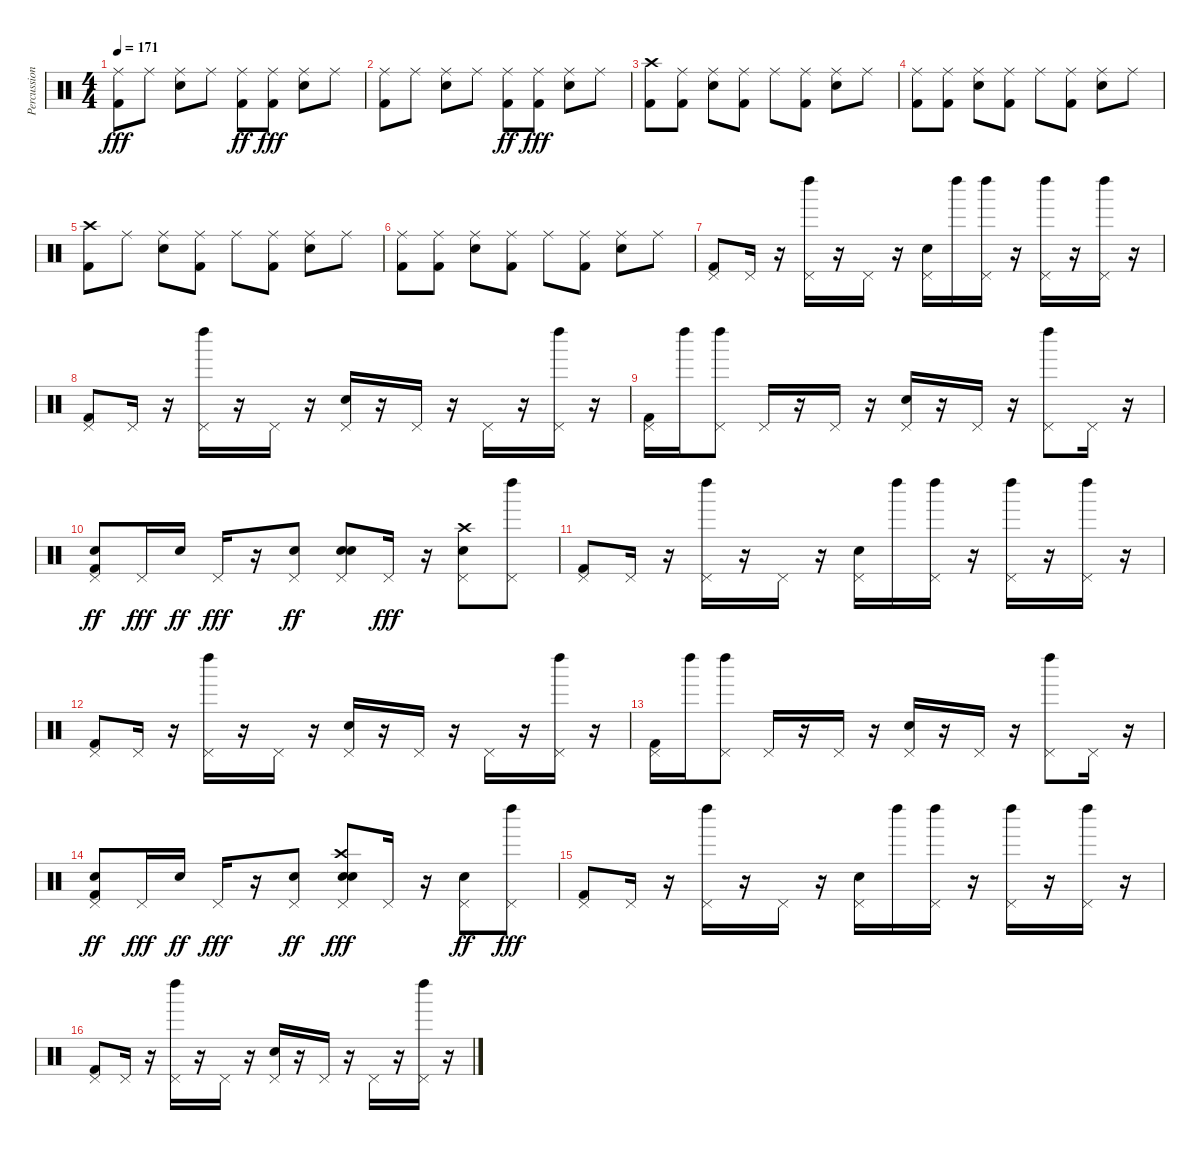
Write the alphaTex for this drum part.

\track ("Percussion" "Percussion") {instrument percussion}
\staff {score}
\articulation defaults
\ts (4 4)
\tempo 171
\clef neutral
\ks c
("Kick (hit) 2" "Ride (middle)").8{dy fff} "Ride (middle)".8 ("Snare (hit) 2" "Ride (middle)").8 "Ride (middle)".8 ("Ride (middle)" "Kick (hit) 2").8{dy ff} ("Kick (hit) 2" "Ride (middle)").8{dy fff} ("Snare (hit) 2" "Ride (middle)").8 "Ride (middle)".8 |
("Kick (hit) 2" "Ride (middle)").8 "Ride (middle)".8 ("Snare (hit) 2" "Ride (middle)").8 "Ride (middle)".8 ("Ride (middle)" "Kick (hit) 2").8{dy ff} ("Kick (hit) 2" "Ride (middle)").8{dy fff} ("Snare (hit) 2" "Ride (middle)").8 "Ride (middle)".8 |
("Kick (hit) 2" "Crash high (hit)").8 ("Kick (hit) 2" "Ride (middle)").8 ("Snare (hit) 2" "Ride (middle)").8 ("Kick (hit) 2" "Ride (middle)").8 "Ride (middle)".8 ("Kick (hit) 2" "Ride (middle)").8 ("Snare (hit) 2" "Ride (middle)").8 "Ride (middle)".8 |
("Kick (hit) 2" "Ride (middle)").8 ("Kick (hit) 2" "Ride (middle)").8 ("Snare (hit) 2" "Ride (middle)").8 ("Kick (hit) 2" "Ride (middle)").8 "Ride (middle)".8 ("Kick (hit) 2" "Ride (middle)").8 ("Snare (hit) 2" "Ride (middle)").8 "Ride (middle)".8 |
("Kick (hit) 2" "Crash high (hit)").8 "Ride (middle)".8 ("Snare (hit) 2" "Ride (middle)").8 ("Kick (hit) 2" "Ride (middle)").8 "Ride (middle)".8 ("Kick (hit) 2" "Ride (middle)").8 ("Snare (hit) 2" "Ride (middle)").8 "Ride (middle)".8 |
("Kick (hit) 2" "Ride (middle)").8 ("Kick (hit) 2" "Ride (middle)").8 ("Snare (hit) 2" "Ride (middle)").8 ("Kick (hit) 2" "Ride (middle)").8 "Ride (middle)".8 ("Kick (hit) 2" "Ride (middle)").8 ("Snare (hit) 2" "Ride (middle)").8 "Ride (middle)".8 |
("Kick (hit) 2" "Pedal Hi-Hat (hit)").8 "Pedal Hi-Hat (hit)".16 r.16 ("Pedal Hi-Hat (hit)" "Left Maraca (hit)").16 r.16 "Pedal Hi-Hat (hit)".16 r.16 ("Snare (hit) 2" "Pedal Hi-Hat (hit)").16 "Left Maraca (hit)".16 ("Pedal Hi-Hat (hit)" "Left Maraca (hit)").16 r.16 ("Pedal Hi-Hat (hit)" "Left Maraca (hit)").16 r.16 ("Pedal Hi-Hat (hit)" "Left Maraca (hit)").16 r.16 |
("Kick (hit) 2" "Pedal Hi-Hat (hit)").8 "Pedal Hi-Hat (hit)".16 r.16 ("Pedal Hi-Hat (hit)" "Left Maraca (hit)").16 r.16 "Pedal Hi-Hat (hit)".16 r.16 ("Snare (hit) 2" "Pedal Hi-Hat (hit)").16 r.16 "Pedal Hi-Hat (hit)".16 r.16 "Pedal Hi-Hat (hit)".16 r.16 ("Pedal Hi-Hat (hit)" "Left Maraca (hit)").16 r.16 |
("Kick (hit) 2" "Pedal Hi-Hat (hit)").16 "Left Maraca (hit)".16 ("Pedal Hi-Hat (hit)" "Left Maraca (hit)").8 "Pedal Hi-Hat (hit)".16 r.16 "Pedal Hi-Hat (hit)".16 r.16 ("Snare (hit) 2" "Pedal Hi-Hat (hit)").16 r.16 "Pedal Hi-Hat (hit)".16 r.16 ("Pedal Hi-Hat (hit)" "Left Maraca (hit)").8 "Pedal Hi-Hat (hit)".16 r.16 |
("Kick (hit) 2" "Pedal Hi-Hat (hit)" "Electric Snare (hit)").8{dy ff} "Pedal Hi-Hat (hit)".16{dy fff} "Electric Snare (hit)".16{dy ff} "Pedal Hi-Hat (hit)".16{dy fff} r.16 ("Pedal Hi-Hat (hit)" "Electric Snare (hit)").8{dy ff} ("Snare (hit) 2" "Pedal Hi-Hat (hit)" "Electric Snare (hit)").8 "Pedal Hi-Hat (hit)".16{dy fff} r.16 ("Pedal Hi-Hat (hit)" "Electric Snare (hit)" "Crash high (hit)").8 ("Pedal Hi-Hat (hit)" "Left Maraca (hit)").8 |
("Kick (hit) 2" "Pedal Hi-Hat (hit)").8 "Pedal Hi-Hat (hit)".16 r.16 ("Pedal Hi-Hat (hit)" "Left Maraca (hit)").16 r.16 "Pedal Hi-Hat (hit)".16 r.16 ("Snare (hit) 2" "Pedal Hi-Hat (hit)").16 "Left Maraca (hit)".16 ("Pedal Hi-Hat (hit)" "Left Maraca (hit)").16 r.16 ("Pedal Hi-Hat (hit)" "Left Maraca (hit)").16 r.16 ("Pedal Hi-Hat (hit)" "Left Maraca (hit)").16 r.16 |
("Kick (hit) 2" "Pedal Hi-Hat (hit)").8 "Pedal Hi-Hat (hit)".16 r.16 ("Pedal Hi-Hat (hit)" "Left Maraca (hit)").16 r.16 "Pedal Hi-Hat (hit)".16 r.16 ("Snare (hit) 2" "Pedal Hi-Hat (hit)").16 r.16 "Pedal Hi-Hat (hit)".16 r.16 "Pedal Hi-Hat (hit)".16 r.16 ("Pedal Hi-Hat (hit)" "Left Maraca (hit)").16 r.16 |
("Kick (hit) 2" "Pedal Hi-Hat (hit)").16 "Left Maraca (hit)".16 ("Pedal Hi-Hat (hit)" "Left Maraca (hit)").8 "Pedal Hi-Hat (hit)".16 r.16 "Pedal Hi-Hat (hit)".16 r.16 ("Snare (hit) 2" "Pedal Hi-Hat (hit)").16 r.16 "Pedal Hi-Hat (hit)".16 r.16 ("Pedal Hi-Hat (hit)" "Left Maraca (hit)").8 "Pedal Hi-Hat (hit)".16 r.16 |
("Kick (hit) 2" "Pedal Hi-Hat (hit)" "Electric Snare (hit)").8{dy ff} "Pedal Hi-Hat (hit)".16{dy fff} "Electric Snare (hit)".16{dy ff} "Pedal Hi-Hat (hit)".16{dy fff} r.16 ("Pedal Hi-Hat (hit)" "Electric Snare (hit)").8{dy ff} ("Snare (hit) 2" "Pedal Hi-Hat (hit)" "Electric Snare (hit)" "Crash high (hit)").8{dy fff} "Pedal Hi-Hat (hit)".16 r.16 ("Pedal Hi-Hat (hit)" "Electric Snare (hit)").8{dy ff} ("Pedal Hi-Hat (hit)" "Left Maraca (hit)").8{dy fff} |
("Kick (hit) 2" "Pedal Hi-Hat (hit)").8 "Pedal Hi-Hat (hit)".16 r.16 ("Pedal Hi-Hat (hit)" "Left Maraca (hit)").16 r.16 "Pedal Hi-Hat (hit)".16 r.16 ("Snare (hit) 2" "Pedal Hi-Hat (hit)").16 "Left Maraca (hit)".16 ("Pedal Hi-Hat (hit)" "Left Maraca (hit)").16 r.16 ("Pedal Hi-Hat (hit)" "Left Maraca (hit)").16 r.16 ("Pedal Hi-Hat (hit)" "Left Maraca (hit)").16 r.16 |
("Kick (hit) 2" "Pedal Hi-Hat (hit)").8 "Pedal Hi-Hat (hit)".16 r.16 ("Pedal Hi-Hat (hit)" "Left Maraca (hit)").16 r.16 "Pedal Hi-Hat (hit)".16 r.16 ("Snare (hit) 2" "Pedal Hi-Hat (hit)").16 r.16 "Pedal Hi-Hat (hit)".16 r.16 "Pedal Hi-Hat (hit)".16 r.16 ("Pedal Hi-Hat (hit)" "Left Maraca (hit)").16 r.16
